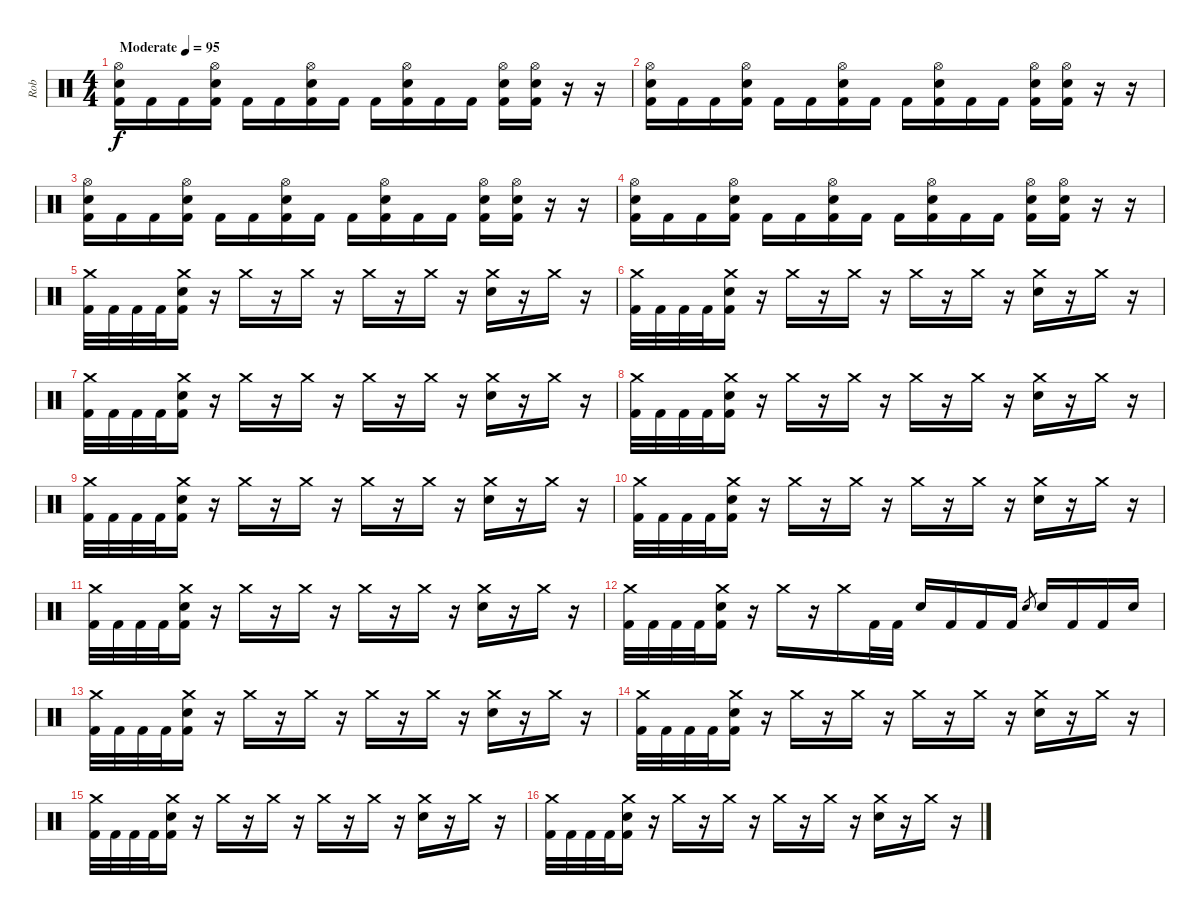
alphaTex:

\track ("Rob" "Rob") {instrument percussion}
\staff {score}
\articulation defaults
\ts (4 4)
\tempo (95 "Moderate")
\clef neutral
\ks c
("Hi-Hat (open)" "Electric Snare (hit)" "Kick (hit) 2").16{dy f} "Kick (hit) 2".16 "Kick (hit) 2".16 ("Hi-Hat (open)" "Electric Snare (hit)" "Kick (hit) 2").16 "Kick (hit) 2".16 "Kick (hit) 2".16 ("Hi-Hat (open)" "Electric Snare (hit)" "Kick (hit) 2").16 "Kick (hit) 2".16 "Kick (hit) 2".16 ("Hi-Hat (open)" "Electric Snare (hit)" "Kick (hit) 2").16 "Kick (hit) 2".16 "Kick (hit) 2".16 ("Hi-Hat (open)" "Electric Snare (hit)" "Kick (hit) 2").16 ("Hi-Hat (open)" "Electric Snare (hit)" "Kick (hit) 2").16 r.16 r.16 |
("Hi-Hat (open)" "Electric Snare (hit)" "Kick (hit) 2").16 "Kick (hit) 2".16 "Kick (hit) 2".16 ("Hi-Hat (open)" "Electric Snare (hit)" "Kick (hit) 2").16 "Kick (hit) 2".16 "Kick (hit) 2".16 ("Hi-Hat (open)" "Electric Snare (hit)" "Kick (hit) 2").16 "Kick (hit) 2".16 "Kick (hit) 2".16 ("Hi-Hat (open)" "Electric Snare (hit)" "Kick (hit) 2").16 "Kick (hit) 2".16 "Kick (hit) 2".16 ("Hi-Hat (open)" "Electric Snare (hit)" "Kick (hit) 2").16 ("Hi-Hat (open)" "Electric Snare (hit)" "Kick (hit) 2").16 r.16 r.16 |
("Hi-Hat (open)" "Electric Snare (hit)" "Kick (hit) 2").16 "Kick (hit) 2".16 "Kick (hit) 2".16 ("Hi-Hat (open)" "Electric Snare (hit)" "Kick (hit) 2").16 "Kick (hit) 2".16 "Kick (hit) 2".16 ("Hi-Hat (open)" "Electric Snare (hit)" "Kick (hit) 2").16 "Kick (hit) 2".16 "Kick (hit) 2".16 ("Hi-Hat (open)" "Electric Snare (hit)" "Kick (hit) 2").16 "Kick (hit) 2".16 "Kick (hit) 2".16 ("Hi-Hat (open)" "Electric Snare (hit)" "Kick (hit) 2").16 ("Hi-Hat (open)" "Electric Snare (hit)" "Kick (hit) 2").16 r.16 r.16 |
("Hi-Hat (open)" "Electric Snare (hit)" "Kick (hit) 2").16 "Kick (hit) 2".16 "Kick (hit) 2".16 ("Hi-Hat (open)" "Electric Snare (hit)" "Kick (hit) 2").16 "Kick (hit) 2".16 "Kick (hit) 2".16 ("Hi-Hat (open)" "Electric Snare (hit)" "Kick (hit) 2").16 "Kick (hit) 2".16 "Kick (hit) 2".16 ("Hi-Hat (open)" "Electric Snare (hit)" "Kick (hit) 2").16 "Kick (hit) 2".16 "Kick (hit) 2".16 ("Hi-Hat (open)" "Electric Snare (hit)" "Kick (hit) 2").16 ("Hi-Hat (open)" "Electric Snare (hit)" "Kick (hit) 2").16 r.16 r.16 |
("Crash medium (hit)" "Kick (hit) 2").32 "Kick (hit) 2".32 "Kick (hit) 2".32 "Kick (hit) 2".32 ("Crash medium (hit)" "Electric Snare (hit)" "Kick (hit) 2").16 r.16 "Crash medium (hit)".16 r.16 "Crash medium (hit)".16 r.16 "Crash medium (hit)".16 r.16 "Crash medium (hit)".16 r.16 ("Crash medium (hit)" "Electric Snare (hit)").16 r.16 "Crash medium (hit)".16 r.16 |
("Crash medium (hit)" "Kick (hit) 2").32 "Kick (hit) 2".32 "Kick (hit) 2".32 "Kick (hit) 2".32 ("Crash medium (hit)" "Electric Snare (hit)" "Kick (hit) 2").16 r.16 "Crash medium (hit)".16 r.16 "Crash medium (hit)".16 r.16 "Crash medium (hit)".16 r.16 "Crash medium (hit)".16 r.16 ("Crash medium (hit)" "Electric Snare (hit)").16 r.16 "Crash medium (hit)".16 r.16 |
("Crash medium (hit)" "Kick (hit) 2").32 "Kick (hit) 2".32 "Kick (hit) 2".32 "Kick (hit) 2".32 ("Crash medium (hit)" "Electric Snare (hit)" "Kick (hit) 2").16 r.16 "Crash medium (hit)".16 r.16 "Crash medium (hit)".16 r.16 "Crash medium (hit)".16 r.16 "Crash medium (hit)".16 r.16 ("Crash medium (hit)" "Electric Snare (hit)").16 r.16 "Crash medium (hit)".16 r.16 |
("Crash medium (hit)" "Kick (hit) 2").32 "Kick (hit) 2".32 "Kick (hit) 2".32 "Kick (hit) 2".32 ("Crash medium (hit)" "Electric Snare (hit)" "Kick (hit) 2").16 r.16 "Crash medium (hit)".16 r.16 "Crash medium (hit)".16 r.16 "Crash medium (hit)".16 r.16 "Crash medium (hit)".16 r.16 ("Crash medium (hit)" "Electric Snare (hit)").16 r.16 "Crash medium (hit)".16 r.16 |
("Crash medium (hit)" "Kick (hit) 2").32 "Kick (hit) 2".32 "Kick (hit) 2".32 "Kick (hit) 2".32 ("Crash medium (hit)" "Electric Snare (hit)" "Kick (hit) 2").16 r.16 "Crash medium (hit)".16 r.16 "Crash medium (hit)".16 r.16 "Crash medium (hit)".16 r.16 "Crash medium (hit)".16 r.16 ("Crash medium (hit)" "Electric Snare (hit)").16 r.16 "Crash medium (hit)".16 r.16 |
("Crash medium (hit)" "Kick (hit) 2").32 "Kick (hit) 2".32 "Kick (hit) 2".32 "Kick (hit) 2".32 ("Crash medium (hit)" "Electric Snare (hit)" "Kick (hit) 2").16 r.16 "Crash medium (hit)".16 r.16 "Crash medium (hit)".16 r.16 "Crash medium (hit)".16 r.16 "Crash medium (hit)".16 r.16 ("Crash medium (hit)" "Electric Snare (hit)").16 r.16 "Crash medium (hit)".16 r.16 |
("Crash medium (hit)" "Kick (hit) 2").32 "Kick (hit) 2".32 "Kick (hit) 2".32 "Kick (hit) 2".32 ("Crash medium (hit)" "Electric Snare (hit)" "Kick (hit) 2").16 r.16 "Crash medium (hit)".16 r.16 "Crash medium (hit)".16 r.16 "Crash medium (hit)".16 r.16 "Crash medium (hit)".16 r.16 ("Crash medium (hit)" "Electric Snare (hit)").16 r.16 "Crash medium (hit)".16 r.16 |
("Crash medium (hit)" "Kick (hit) 2").32 "Kick (hit) 2".32 "Kick (hit) 2".32 "Kick (hit) 2".32 ("Crash medium (hit)" "Electric Snare (hit)" "Kick (hit) 2").16 r.16 "Crash medium (hit)".16 r.16 "Crash medium (hit)".16 "Kick (hit) 2".32 "Kick (hit) 2".32 "Electric Snare (hit)".16 "Kick (hit) 2".16 "Kick (hit) 2".16 "Kick (hit) 2".16 "Electric Snare (hit)".8{gr} "Electric Snare (hit)".16 "Kick (hit) 2".16 "Kick (hit) 2".16 "Electric Snare (hit)".16 |
("Crash medium (hit)" "Kick (hit) 2").32 "Kick (hit) 2".32 "Kick (hit) 2".32 "Kick (hit) 2".32 ("Crash medium (hit)" "Electric Snare (hit)" "Kick (hit) 2").16 r.16 "Crash medium (hit)".16 r.16 "Crash medium (hit)".16 r.16 "Crash medium (hit)".16 r.16 "Crash medium (hit)".16 r.16 ("Crash medium (hit)" "Electric Snare (hit)").16 r.16 "Crash medium (hit)".16 r.16 |
("Crash medium (hit)" "Kick (hit) 2").32 "Kick (hit) 2".32 "Kick (hit) 2".32 "Kick (hit) 2".32 ("Crash medium (hit)" "Electric Snare (hit)" "Kick (hit) 2").16 r.16 "Crash medium (hit)".16 r.16 "Crash medium (hit)".16 r.16 "Crash medium (hit)".16 r.16 "Crash medium (hit)".16 r.16 ("Crash medium (hit)" "Electric Snare (hit)").16 r.16 "Crash medium (hit)".16 r.16 |
("Crash medium (hit)" "Kick (hit) 2").32 "Kick (hit) 2".32 "Kick (hit) 2".32 "Kick (hit) 2".32 ("Crash medium (hit)" "Electric Snare (hit)" "Kick (hit) 2").16 r.16 "Crash medium (hit)".16 r.16 "Crash medium (hit)".16 r.16 "Crash medium (hit)".16 r.16 "Crash medium (hit)".16 r.16 ("Crash medium (hit)" "Electric Snare (hit)").16 r.16 "Crash medium (hit)".16 r.16 |
("Crash medium (hit)" "Kick (hit) 2").32 "Kick (hit) 2".32 "Kick (hit) 2".32 "Kick (hit) 2".32 ("Crash medium (hit)" "Electric Snare (hit)" "Kick (hit) 2").16 r.16 "Crash medium (hit)".16 r.16 "Crash medium (hit)".16 r.16 "Crash medium (hit)".16 r.16 "Crash medium (hit)".16 r.16 ("Crash medium (hit)" "Electric Snare (hit)").16 r.16 "Crash medium (hit)".16 r.16
